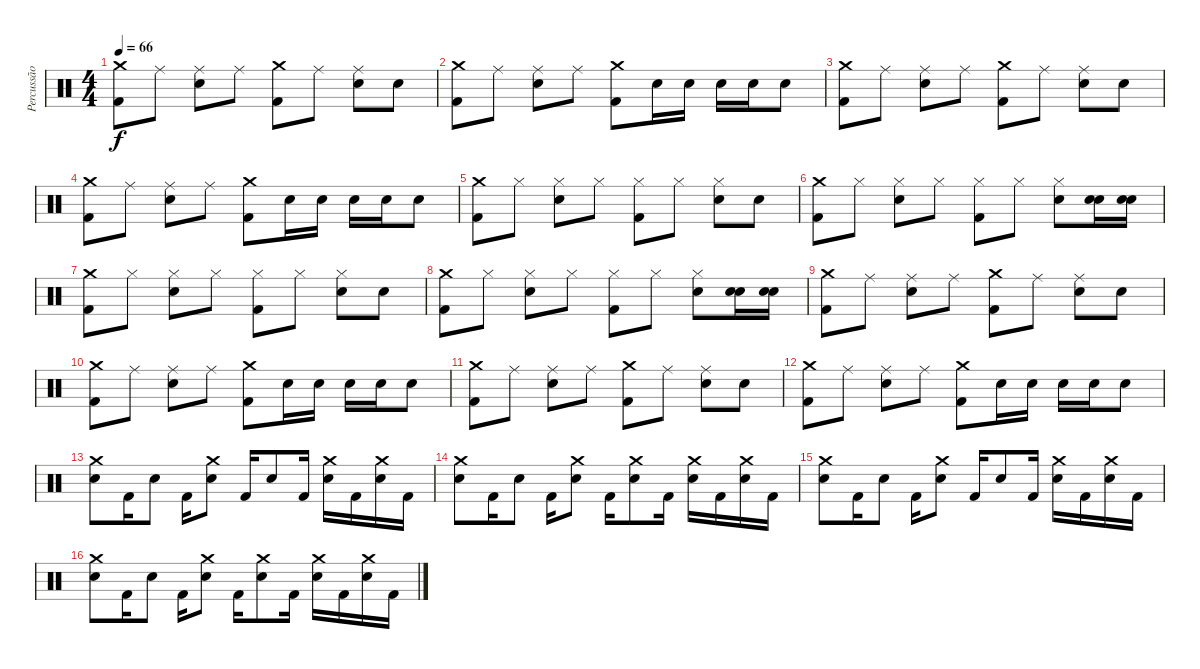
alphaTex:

\track ("Percussão" "Percussão") {instrument percussion}
\staff {score}
\articulation defaults
\ts (4 4)
\tempo 66
\clef neutral
\ks c
("Crash medium (hit)" "Kick (hit) 2").8{dy f} "Ride (middle)".8 ("Ride (middle)" "Snare (hit) 2").8 "Ride (middle)".8 ("Crash medium (hit)" "Kick (hit) 2").8 "Ride (middle)".8 ("Ride (middle)" "Snare (hit) 2").8 "Snare (hit) 2".8 |
("Crash medium (hit)" "Kick (hit) 2").8 "Ride (middle)".8 ("Ride (middle)" "Snare (hit) 2").8 "Ride (middle)".8 ("Crash medium (hit)" "Kick (hit) 2").8 "Snare (hit) 2".16 "Snare (hit) 2".16 "Snare (hit) 2".16 "Snare (hit) 2".16 "Snare (hit) 2".8 |
("Crash medium (hit)" "Kick (hit) 2").8 "Ride (middle)".8 ("Ride (middle)" "Snare (hit) 2").8 "Ride (middle)".8 ("Crash medium (hit)" "Kick (hit) 2").8 "Ride (middle)".8 ("Ride (middle)" "Snare (hit) 2").8 "Snare (hit) 2".8 |
("Crash medium (hit)" "Kick (hit) 2").8 "Ride (middle)".8 ("Ride (middle)" "Snare (hit) 2").8 "Ride (middle)".8 ("Crash medium (hit)" "Kick (hit) 2").8 "Snare (hit) 2".16 "Snare (hit) 2".16 "Snare (hit) 2".16 "Snare (hit) 2".16 "Snare (hit) 2".8 |
("Crash medium (hit)" "Kick (hit) 2").8 "Hi-Hat (closed)".8 ("Hi-Hat (closed)" "Snare (hit) 2").8 "Hi-Hat (closed)".8 ("Hi-Hat (closed)" "Kick (hit) 2").8 "Hi-Hat (closed)".8 ("Hi-Hat (closed)" "Snare (hit) 2").8 "Snare (hit) 2".8 |
("Crash medium (hit)" "Kick (hit) 2").8 "Hi-Hat (closed)".8 ("Hi-Hat (closed)" "Snare (hit) 2").8 "Hi-Hat (closed)".8 ("Hi-Hat (closed)" "Kick (hit) 2").8 "Hi-Hat (closed)".8 ("Hi-Hat (closed)" "Snare (hit) 2").8 ("Snare (hit) 2" "Snare (hit) 2").16{bu 240} ("Snare (hit) 2" "Snare (hit) 2").16{bu 240} |
("Crash medium (hit)" "Kick (hit) 2").8 "Hi-Hat (closed)".8 ("Hi-Hat (closed)" "Snare (hit) 2").8 "Hi-Hat (closed)".8 ("Hi-Hat (closed)" "Kick (hit) 2").8 "Hi-Hat (closed)".8 ("Hi-Hat (closed)" "Snare (hit) 2").8 "Snare (hit) 2".8 |
("Crash medium (hit)" "Kick (hit) 2").8 "Hi-Hat (closed)".8 ("Hi-Hat (closed)" "Snare (hit) 2").8 "Hi-Hat (closed)".8 ("Hi-Hat (closed)" "Kick (hit) 2").8 "Hi-Hat (closed)".8 ("Hi-Hat (closed)" "Snare (hit) 2").8 ("Snare (hit) 2" "Snare (hit) 2").16{bu 240} ("Snare (hit) 2" "Snare (hit) 2").16{bu 240} |
("Crash medium (hit)" "Kick (hit) 2").8 "Ride (middle)".8 ("Ride (middle)" "Snare (hit) 2").8 "Ride (middle)".8 ("Crash medium (hit)" "Kick (hit) 2").8 "Ride (middle)".8 ("Ride (middle)" "Snare (hit) 2").8 "Snare (hit) 2".8 |
("Crash medium (hit)" "Kick (hit) 2").8 "Ride (middle)".8 ("Ride (middle)" "Snare (hit) 2").8 "Ride (middle)".8 ("Crash medium (hit)" "Kick (hit) 2").8 "Snare (hit) 2".16 "Snare (hit) 2".16 "Snare (hit) 2".16 "Snare (hit) 2".16 "Snare (hit) 2".8 |
("Crash medium (hit)" "Kick (hit) 2").8 "Ride (middle)".8 ("Ride (middle)" "Snare (hit) 2").8 "Ride (middle)".8 ("Crash medium (hit)" "Kick (hit) 2").8 "Ride (middle)".8 ("Ride (middle)" "Snare (hit) 2").8 "Snare (hit) 2".8 |
("Crash medium (hit)" "Kick (hit) 2").8 "Ride (middle)".8 ("Ride (middle)" "Snare (hit) 2").8 "Ride (middle)".8 ("Crash medium (hit)" "Kick (hit) 2").8 "Snare (hit) 2".16 "Snare (hit) 2".16 "Snare (hit) 2".16 "Snare (hit) 2".16 "Snare (hit) 2".8 |
("Crash medium (hit)" "Snare (hit) 2").8 "Kick (hit) 2".16 "Snare (hit) 2".8 "Kick (hit) 2".16 ("Crash medium (hit)" "Snare (hit) 2").8 "Kick (hit) 2".16 "Snare (hit) 2".8 "Kick (hit) 2".16 ("Crash medium (hit)" "Snare (hit) 2").16 "Kick (hit) 2".16 ("Crash medium (hit)" "Snare (hit) 2").16 "Kick (hit) 2".16 |
("Crash medium (hit)" "Snare (hit) 2").8 "Kick (hit) 2".16 "Snare (hit) 2".8 "Kick (hit) 2".16 ("Crash medium (hit)" "Snare (hit) 2").8 "Kick (hit) 2".16 ("Crash medium (hit)" "Snare (hit) 2").8 "Kick (hit) 2".16 ("Crash medium (hit)" "Snare (hit) 2").16 "Kick (hit) 2".16 ("Crash medium (hit)" "Snare (hit) 2").16 "Kick (hit) 2".16 |
("Crash medium (hit)" "Snare (hit) 2").8 "Kick (hit) 2".16 "Snare (hit) 2".8 "Kick (hit) 2".16 ("Crash medium (hit)" "Snare (hit) 2").8 "Kick (hit) 2".16 "Snare (hit) 2".8 "Kick (hit) 2".16 ("Crash medium (hit)" "Snare (hit) 2").16 "Kick (hit) 2".16 ("Crash medium (hit)" "Snare (hit) 2").16 "Kick (hit) 2".16 |
("Crash medium (hit)" "Snare (hit) 2").8 "Kick (hit) 2".16 "Snare (hit) 2".8 "Kick (hit) 2".16 ("Crash medium (hit)" "Snare (hit) 2").8 "Kick (hit) 2".16 ("Crash medium (hit)" "Snare (hit) 2").8 "Kick (hit) 2".16 ("Crash medium (hit)" "Snare (hit) 2").16 "Kick (hit) 2".16 ("Crash medium (hit)" "Snare (hit) 2").16 "Kick (hit) 2".16
